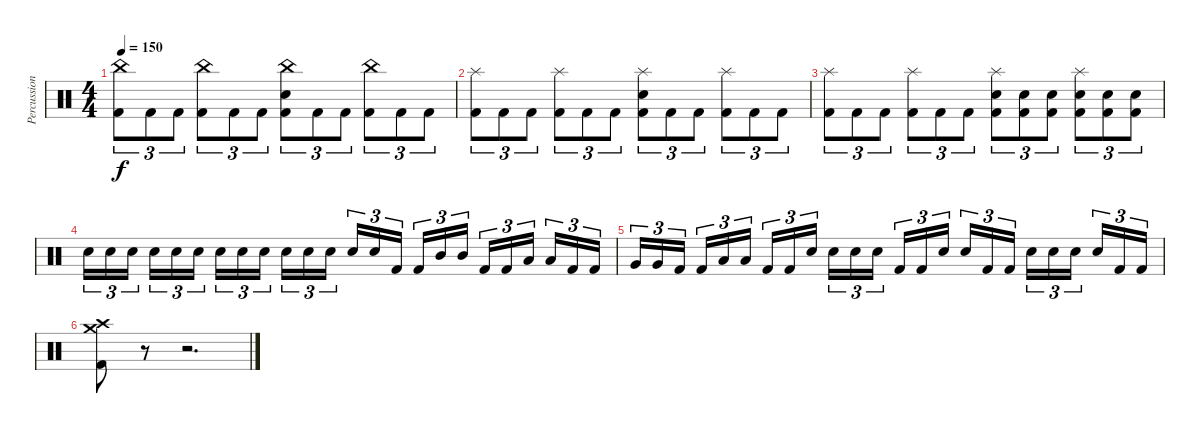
\track ("Percussion" "Percussion") {instrument percussion}
\staff {score}
\articulation defaults
\ts (4 4)
\tempo 150
\clef neutral
\ks c
("China (hit)" "Kick (hit) 2").8{tu (3 2) dy f} "Kick (hit) 2".8{tu (3 2)} "Kick (hit) 2".8{tu (3 2)} ("China (hit)" "Kick (hit) 2").8{tu (3 2)} "Kick (hit) 2".8{tu (3 2)} "Kick (hit) 2".8{tu (3 2)} ("China (hit)" "Snare (hit) 2" "Kick (hit) 2").8{tu (3 2)} "Kick (hit) 2".8{tu (3 2)} "Kick (hit) 2".8{tu (3 2)} ("China (hit)" "Kick (hit) 2").8{tu (3 2)} "Kick (hit) 2".8{tu (3 2)} "Kick (hit) 2".8{tu (3 2)} |
("Splash (hit)" "Kick (hit) 2").8{tu (3 2)} "Kick (hit) 2".8{tu (3 2)} "Kick (hit) 2".8{tu (3 2)} ("Splash (hit)" "Kick (hit) 2").8{tu (3 2)} "Kick (hit) 2".8{tu (3 2)} "Kick (hit) 2".8{tu (3 2)} ("Splash (hit)" "Snare (hit) 2" "Kick (hit) 2").8{tu (3 2)} "Kick (hit) 2".8{tu (3 2)} "Kick (hit) 2".8{tu (3 2)} ("Splash (hit)" "Kick (hit) 2").8{tu (3 2)} "Kick (hit) 2".8{tu (3 2)} "Kick (hit) 2".8{tu (3 2)} |
("Splash (hit)" "Kick (hit) 2").8{tu (3 2)} "Kick (hit) 2".8{tu (3 2)} "Kick (hit) 2".8{tu (3 2)} ("Splash (hit)" "Kick (hit) 2").8{tu (3 2)} "Kick (hit) 2".8{tu (3 2)} "Kick (hit) 2".8{tu (3 2)} ("Splash (hit)" "Snare (hit) 2" "Kick (hit) 2").8{tu (3 2)} ("Snare (hit) 2" "Kick (hit) 2").8{tu (3 2)} ("Snare (hit) 2" "Kick (hit) 2").8{tu (3 2)} ("Splash (hit)" "Snare (hit) 2" "Kick (hit) 2").8{tu (3 2)} ("Snare (hit) 2" "Kick (hit) 2").8{tu (3 2)} ("Snare (hit) 2" "Kick (hit) 2").8{tu (3 2)} |
"Snare (hit) 2".16{tu (3 2)} "Snare (hit) 2".16{tu (3 2)} "Snare (hit) 2".16{tu (3 2) beam splitsecondary} "Snare (hit) 2".16{tu (3 2)} "Snare (hit) 2".16{tu (3 2)} "Snare (hit) 2".16{tu (3 2)} "Snare (hit) 2".16{tu (3 2)} "Snare (hit) 2".16{tu (3 2)} "Snare (hit) 2".16{tu (3 2) beam splitsecondary} "Snare (hit) 2".16{tu (3 2)} "Snare (hit) 2".16{tu (3 2)} "Snare (hit) 2".16{tu (3 2)} "Snare (hit) 2".16{tu (3 2)} "Snare (hit) 2".16{tu (3 2)} "Kick (hit) 2".16{tu (3 2) beam splitsecondary} "Kick (hit) 2".16{tu (3 2)} "Mid Tom (hit)".16{tu (3 2)} "Mid Tom (hit)".16{tu (3 2)} "Kick (hit) 2".16{tu (3 2)} "Kick (hit) 2".16{tu (3 2)} "Low Tom (hit)".16{tu (3 2) beam splitsecondary} "Low Tom (hit)".16{tu (3 2)} "Kick (hit) 2".16{tu (3 2)} "Kick (hit) 2".16{tu (3 2)} |
"Very Low Tom (hit)".16{tu (3 2)} "Very Low Tom (hit)".16{tu (3 2)} "Kick (hit) 2".16{tu (3 2) beam splitsecondary} "Kick (hit) 2".16{tu (3 2)} "Low Floor Tom (hit)".16{tu (3 2)} "Low Floor Tom (hit)".16{tu (3 2)} "Kick (hit) 2".16{tu (3 2)} "Kick (hit) 2".16{tu (3 2)} "Snare (hit) 2".16{tu (3 2) beam splitsecondary} "Snare (hit) 2".16{tu (3 2)} "Snare (hit) 2".16{tu (3 2)} "Snare (hit) 2".16{tu (3 2)} "Kick (hit) 2".16{tu (3 2)} "Kick (hit) 2".16{tu (3 2)} "Snare (hit) 2".16{tu (3 2) beam splitsecondary} "Snare (hit) 2".16{tu (3 2)} "Kick (hit) 2".16{tu (3 2)} "Kick (hit) 2".16{tu (3 2)} "Snare (hit) 2".16{tu (3 2)} "Snare (hit) 2".16{tu (3 2)} "Snare (hit) 2".16{tu (3 2) beam splitsecondary} "Snare (hit) 2".16{tu (3 2)} "Kick (hit) 2".16{tu (3 2)} "Kick (hit) 2".16{tu (3 2)} |
("Crash medium (hit)" "Crash high (hit)" "Kick (hit) 2").8 r.8 r.2{d}
